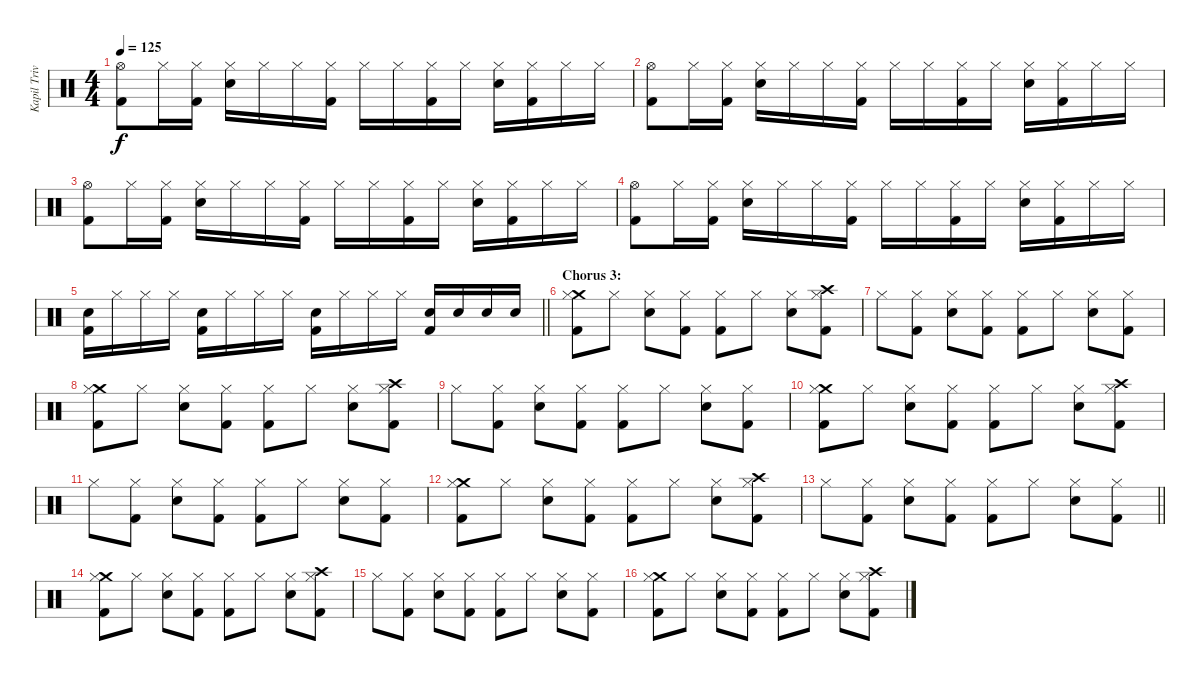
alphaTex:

\track ("Kapil Trivedi (Percussion)" "Kapil Triv") {instrument percussion}
\staff {score}
\articulation defaults
\ts (4 4)
\tempo 125
\clef neutral
\ks c
("Hi-Hat (open)" "Kick (hit) 2").8{dy f} "Hi-Hat (closed)".16 ("Hi-Hat (closed)" "Kick (hit) 2").16 ("Hi-Hat (closed)" "Snare (hit) 2").16 "Hi-Hat (closed)".16 "Hi-Hat (closed)".16 ("Hi-Hat (closed)" "Kick (hit) 2").16 "Hi-Hat (closed)".16 "Hi-Hat (closed)".16 ("Hi-Hat (closed)" "Kick (hit) 2").16 "Hi-Hat (closed)".16 ("Hi-Hat (closed)" "Snare (hit) 2").16 ("Hi-Hat (closed)" "Kick (hit) 2").16 "Hi-Hat (closed)".16 "Hi-Hat (closed)".16 |
("Hi-Hat (open)" "Kick (hit) 2").8 "Hi-Hat (closed)".16 ("Hi-Hat (closed)" "Kick (hit) 2").16 ("Hi-Hat (closed)" "Snare (hit) 2").16 "Hi-Hat (closed)".16 "Hi-Hat (closed)".16 ("Hi-Hat (closed)" "Kick (hit) 2").16 "Hi-Hat (closed)".16 "Hi-Hat (closed)".16 ("Hi-Hat (closed)" "Kick (hit) 2").16 "Hi-Hat (closed)".16 ("Hi-Hat (closed)" "Snare (hit) 2").16 ("Hi-Hat (closed)" "Kick (hit) 2").16 "Hi-Hat (closed)".16 "Hi-Hat (closed)".16 |
("Hi-Hat (open)" "Kick (hit) 2").8 "Hi-Hat (closed)".16 ("Hi-Hat (closed)" "Kick (hit) 2").16 ("Hi-Hat (closed)" "Snare (hit) 2").16 "Hi-Hat (closed)".16 "Hi-Hat (closed)".16 ("Hi-Hat (closed)" "Kick (hit) 2").16 "Hi-Hat (closed)".16 "Hi-Hat (closed)".16 ("Hi-Hat (closed)" "Kick (hit) 2").16 "Hi-Hat (closed)".16 ("Hi-Hat (closed)" "Snare (hit) 2").16 ("Hi-Hat (closed)" "Kick (hit) 2").16 "Hi-Hat (closed)".16 "Hi-Hat (closed)".16 |
("Hi-Hat (open)" "Kick (hit) 2").8 "Hi-Hat (closed)".16 ("Hi-Hat (closed)" "Kick (hit) 2").16 ("Hi-Hat (closed)" "Snare (hit) 2").16 "Hi-Hat (closed)".16 "Hi-Hat (closed)".16 ("Hi-Hat (closed)" "Kick (hit) 2").16 "Hi-Hat (closed)".16 "Hi-Hat (closed)".16 ("Hi-Hat (closed)" "Kick (hit) 2").16 "Hi-Hat (closed)".16 ("Hi-Hat (closed)" "Snare (hit) 2").16 ("Hi-Hat (closed)" "Kick (hit) 2").16 "Hi-Hat (closed)".16 "Hi-Hat (closed)".16 |
\barLineRight lightlight
("Snare (hit) 2" "Kick (hit) 2").16 "Hi-Hat (closed)".16 "Hi-Hat (closed)".16 "Hi-Hat (closed)".16 ("Snare (hit) 2" "Kick (hit) 2").16 "Hi-Hat (closed)".16 "Hi-Hat (closed)".16 "Hi-Hat (closed)".16 ("Snare (hit) 2" "Kick (hit) 2").16 "Hi-Hat (closed)".16 "Hi-Hat (closed)".16 "Hi-Hat (closed)".16 ("Snare (hit) 2" "Kick (hit) 2").16 "Snare (hit) 2".16 "Snare (hit) 2".16 "Snare (hit) 2".16 |
\section ("" "Chorus 3:")
("Crash medium (hit)" "Hi-Hat (closed)" "Kick (hit) 2").8 "Hi-Hat (closed)".8 ("Hi-Hat (closed)" "Snare (hit) 2").8 ("Hi-Hat (closed)" "Kick (hit) 2").8 ("Hi-Hat (closed)" "Kick (hit) 2").8 "Hi-Hat (closed)".8 ("Hi-Hat (closed)" "Snare (hit) 2").8 ("Crash high (hit)" "Hi-Hat (closed)" "Kick (hit) 2").8 |
"Hi-Hat (closed)".8 ("Hi-Hat (closed)" "Kick (hit) 2").8 ("Hi-Hat (closed)" "Snare (hit) 2").8 ("Hi-Hat (closed)" "Kick (hit) 2").8 ("Hi-Hat (closed)" "Kick (hit) 2").8 "Hi-Hat (closed)".8 ("Hi-Hat (closed)" "Snare (hit) 2").8 ("Hi-Hat (closed)" "Kick (hit) 2").8 |
("Crash medium (hit)" "Hi-Hat (closed)" "Kick (hit) 2").8 "Hi-Hat (closed)".8 ("Hi-Hat (closed)" "Snare (hit) 2").8 ("Hi-Hat (closed)" "Kick (hit) 2").8 ("Hi-Hat (closed)" "Kick (hit) 2").8 "Hi-Hat (closed)".8 ("Hi-Hat (closed)" "Snare (hit) 2").8 ("Crash high (hit)" "Hi-Hat (closed)" "Kick (hit) 2").8 |
"Hi-Hat (closed)".8 ("Hi-Hat (closed)" "Kick (hit) 2").8 ("Hi-Hat (closed)" "Snare (hit) 2").8 ("Hi-Hat (closed)" "Kick (hit) 2").8 ("Hi-Hat (closed)" "Kick (hit) 2").8 "Hi-Hat (closed)".8 ("Hi-Hat (closed)" "Snare (hit) 2").8 ("Hi-Hat (closed)" "Kick (hit) 2").8 |
("Crash medium (hit)" "Hi-Hat (closed)" "Kick (hit) 2").8 "Hi-Hat (closed)".8 ("Hi-Hat (closed)" "Snare (hit) 2").8 ("Hi-Hat (closed)" "Kick (hit) 2").8 ("Hi-Hat (closed)" "Kick (hit) 2").8 "Hi-Hat (closed)".8 ("Hi-Hat (closed)" "Snare (hit) 2").8 ("Crash high (hit)" "Hi-Hat (closed)" "Kick (hit) 2").8 |
"Hi-Hat (closed)".8 ("Hi-Hat (closed)" "Kick (hit) 2").8 ("Hi-Hat (closed)" "Snare (hit) 2").8 ("Hi-Hat (closed)" "Kick (hit) 2").8 ("Hi-Hat (closed)" "Kick (hit) 2").8 "Hi-Hat (closed)".8 ("Hi-Hat (closed)" "Snare (hit) 2").8 ("Hi-Hat (closed)" "Kick (hit) 2").8 |
("Crash medium (hit)" "Hi-Hat (closed)" "Kick (hit) 2").8 "Hi-Hat (closed)".8 ("Hi-Hat (closed)" "Snare (hit) 2").8 ("Hi-Hat (closed)" "Kick (hit) 2").8 ("Hi-Hat (closed)" "Kick (hit) 2").8 "Hi-Hat (closed)".8 ("Hi-Hat (closed)" "Snare (hit) 2").8 ("Crash high (hit)" "Hi-Hat (closed)" "Kick (hit) 2").8 |
\barLineRight lightlight "Hi-Hat (closed)".8
("Hi-Hat (closed)" "Kick (hit) 2").8 ("Hi-Hat (closed)" "Snare (hit) 2").8 ("Hi-Hat (closed)" "Kick (hit) 2").8 ("Hi-Hat (closed)" "Kick (hit) 2").8 "Hi-Hat (closed)".8 ("Hi-Hat (closed)" "Snare (hit) 2").8 ("Hi-Hat (closed)" "Kick (hit) 2").8 |
("Crash medium (hit)" "Hi-Hat (closed)" "Kick (hit) 2").8 "Hi-Hat (closed)".8 ("Hi-Hat (closed)" "Snare (hit) 2").8 ("Hi-Hat (closed)" "Kick (hit) 2").8 ("Hi-Hat (closed)" "Kick (hit) 2").8 "Hi-Hat (closed)".8 ("Hi-Hat (closed)" "Snare (hit) 2").8 ("Crash high (hit)" "Hi-Hat (closed)" "Kick (hit) 2").8 |
"Hi-Hat (closed)".8 ("Hi-Hat (closed)" "Kick (hit) 2").8 ("Hi-Hat (closed)" "Snare (hit) 2").8 ("Hi-Hat (closed)" "Kick (hit) 2").8 ("Hi-Hat (closed)" "Kick (hit) 2").8 "Hi-Hat (closed)".8 ("Hi-Hat (closed)" "Snare (hit) 2").8 ("Hi-Hat (closed)" "Kick (hit) 2").8 |
("Crash medium (hit)" "Hi-Hat (closed)" "Kick (hit) 2").8 "Hi-Hat (closed)".8 ("Hi-Hat (closed)" "Snare (hit) 2").8 ("Hi-Hat (closed)" "Kick (hit) 2").8 ("Hi-Hat (closed)" "Kick (hit) 2").8 "Hi-Hat (closed)".8 ("Hi-Hat (closed)" "Snare (hit) 2").8 ("Crash high (hit)" "Hi-Hat (closed)" "Kick (hit) 2").8
